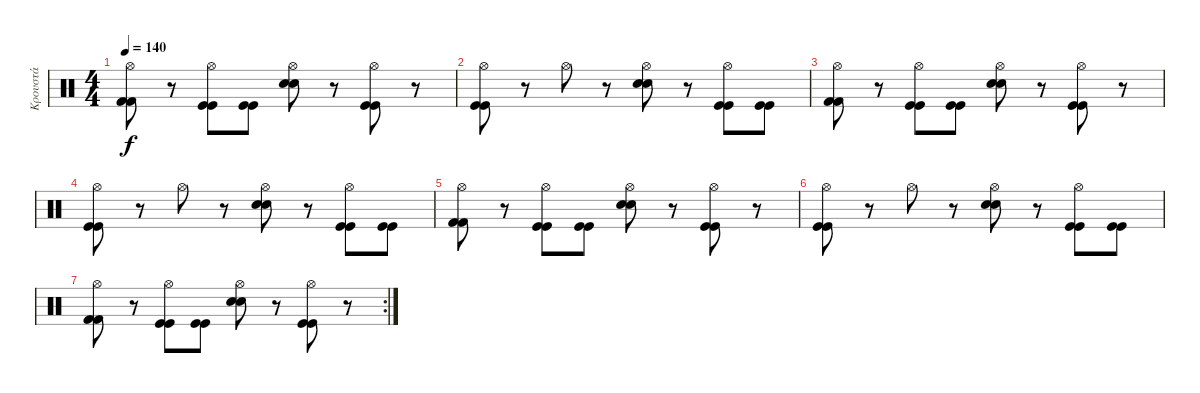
\track ("Κρουστά" "Κρουστά") {instrument percussion}
\staff {score}
\articulation defaults
\ts (4 4)
\tempo 140
\clef neutral
\ks c
("Hi-Hat (open)" "Kick (hit) 2" "Kick (hit) 2").8{dy f} r.8 ("Hi-Hat (open)" "Kick (hit)" "Kick (hit)").8 ("Kick (hit)" "Kick (hit)").8 ("Hi-Hat (open)" "Electric Snare (hit)" "Electric Snare (hit)").8 r.8 ("Hi-Hat (open)" "Kick (hit)" "Kick (hit)").8 r.8 |
("Hi-Hat (open)" "Kick (hit)" "Kick (hit)").8 r.8 "Hi-Hat (open)".8 r.8 ("Hi-Hat (open)" "Electric Snare (hit)" "Electric Snare (hit)").8 r.8 ("Hi-Hat (open)" "Kick (hit)" "Kick (hit)").8 ("Kick (hit)" "Kick (hit)").8 |
("Hi-Hat (open)" "Kick (hit) 2" "Kick (hit) 2").8 r.8 ("Hi-Hat (open)" "Kick (hit)" "Kick (hit)").8 ("Kick (hit)" "Kick (hit)").8 ("Hi-Hat (open)" "Electric Snare (hit)" "Electric Snare (hit)").8 r.8 ("Hi-Hat (open)" "Kick (hit)" "Kick (hit)").8 r.8 |
("Hi-Hat (open)" "Kick (hit)" "Kick (hit)").8 r.8 "Hi-Hat (open)".8 r.8 ("Hi-Hat (open)" "Electric Snare (hit)" "Electric Snare (hit)").8 r.8 ("Hi-Hat (open)" "Kick (hit)" "Kick (hit)").8 ("Kick (hit)" "Kick (hit)").8 |
("Hi-Hat (open)" "Kick (hit) 2" "Kick (hit) 2").8 r.8 ("Hi-Hat (open)" "Kick (hit)" "Kick (hit)").8 ("Kick (hit)" "Kick (hit)").8 ("Hi-Hat (open)" "Electric Snare (hit)" "Electric Snare (hit)").8 r.8 ("Hi-Hat (open)" "Kick (hit)" "Kick (hit)").8 r.8 |
("Hi-Hat (open)" "Kick (hit)" "Kick (hit)").8 r.8 "Hi-Hat (open)".8 r.8 ("Hi-Hat (open)" "Electric Snare (hit)" "Electric Snare (hit)").8 r.8 ("Hi-Hat (open)" "Kick (hit)" "Kick (hit)").8 ("Kick (hit)" "Kick (hit)").8 |
\rc 2
("Hi-Hat (open)" "Kick (hit) 2" "Kick (hit) 2").8 r.8 ("Hi-Hat (open)" "Kick (hit)" "Kick (hit)").8 ("Kick (hit)" "Kick (hit)").8 ("Hi-Hat (open)" "Electric Snare (hit)" "Electric Snare (hit)").8 r.8 ("Hi-Hat (open)" "Kick (hit)" "Kick (hit)").8 r.8
